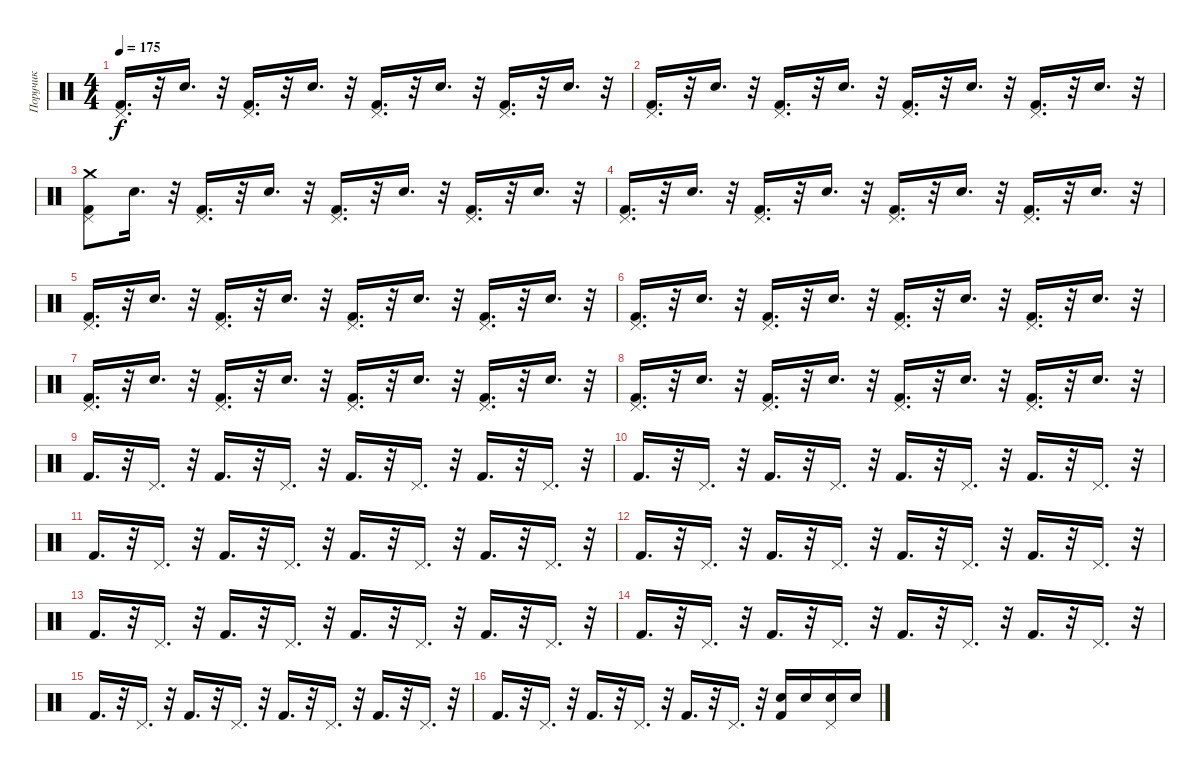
\track ("Поручик" "Поручик") {instrument percussion}
\staff {score}
\articulation defaults
\ts (4 4)
\tempo 175
\clef neutral
\ks c
("Pedal Hi-Hat (hit)" "Kick (hit) 2").16{d dy f} r.32 "Snare (hit) 2".16{d} r.32 ("Pedal Hi-Hat (hit)" "Kick (hit) 2").16{d} r.32 "Snare (hit) 2".16{d} r.32 ("Kick (hit) 2" "Pedal Hi-Hat (hit)").16{d} r.32 "Snare (hit) 2".16{d} r.32 ("Kick (hit) 2" "Pedal Hi-Hat (hit)").16{d} r.32 "Snare (hit) 2".16{d} r.32 |
("Pedal Hi-Hat (hit)" "Kick (hit) 2").16{d} r.32 "Snare (hit) 2".16{d} r.32 ("Pedal Hi-Hat (hit)" "Kick (hit) 2").16{d} r.32 "Snare (hit) 2".16{d} r.32 ("Kick (hit) 2" "Pedal Hi-Hat (hit)").16{d} r.32 "Snare (hit) 2".16{d} r.32 ("Pedal Hi-Hat (hit)" "Kick (hit) 2").16{d} r.32 "Snare (hit) 2".16{d} r.32 |
("Crash medium (hit)" "Kick (hit) 2" "Pedal Hi-Hat (hit)").8 "Snare (hit) 2".16{d} r.32 ("Pedal Hi-Hat (hit)" "Kick (hit) 2").16{d} r.32 "Snare (hit) 2".16{d} r.32 ("Pedal Hi-Hat (hit)" "Kick (hit) 2").16{d} r.32 "Snare (hit) 2".16{d} r.32 ("Kick (hit) 2" "Pedal Hi-Hat (hit)").16{d} r.32 "Snare (hit) 2".16{d} r.32 |
("Kick (hit) 2" "Pedal Hi-Hat (hit)").16{d} r.32 "Snare (hit) 2".16{d} r.32 ("Pedal Hi-Hat (hit)" "Kick (hit) 2").16{d} r.32 "Snare (hit) 2".16{d} r.32 ("Kick (hit) 2" "Pedal Hi-Hat (hit)").16{d} r.32 "Snare (hit) 2".16{d} r.32 ("Kick (hit) 2" "Pedal Hi-Hat (hit)").16{d} r.32 "Snare (hit) 2".16{d} r.32 |
("Kick (hit) 2" "Pedal Hi-Hat (hit)").16{d} r.32 "Snare (hit) 2".16{d} r.32 ("Pedal Hi-Hat (hit)" "Kick (hit) 2").16{d} r.32 "Snare (hit) 2".16{d} r.32 ("Kick (hit) 2" "Pedal Hi-Hat (hit)").16{d} r.32 "Snare (hit) 2".16{d} r.32 ("Kick (hit) 2" "Pedal Hi-Hat (hit)").16{d} r.32 "Snare (hit) 2".16{d} r.32 |
("Pedal Hi-Hat (hit)" "Kick (hit) 2").16{d} r.32 "Snare (hit) 2".16{d} r.32 ("Pedal Hi-Hat (hit)" "Kick (hit) 2").16{d} r.32 "Snare (hit) 2".16{d} r.32 ("Kick (hit) 2" "Pedal Hi-Hat (hit)").16{d} r.32 "Snare (hit) 2".16{d} r.32 ("Pedal Hi-Hat (hit)" "Kick (hit) 2").16{d} r.32 "Snare (hit) 2".16{d} r.32 |
("Pedal Hi-Hat (hit)" "Kick (hit) 2").16{d} r.32 "Snare (hit) 2".16{d} r.32 ("Kick (hit) 2" "Pedal Hi-Hat (hit)").16{d} r.32 "Snare (hit) 2".16{d} r.32 ("Kick (hit) 2" "Pedal Hi-Hat (hit)").16{d} r.32 "Snare (hit) 2".16{d} r.32 ("Pedal Hi-Hat (hit)" "Kick (hit) 2").16{d} r.32 "Snare (hit) 2".16{d} r.32 |
("Kick (hit) 2" "Pedal Hi-Hat (hit)").16{d} r.32 "Snare (hit) 2".16{d} r.32 ("Pedal Hi-Hat (hit)" "Kick (hit) 2").16{d} r.32 "Snare (hit) 2".16{d} r.32 ("Pedal Hi-Hat (hit)" "Kick (hit) 2").16{d} r.32 "Snare (hit) 2".16{d} r.32 ("Kick (hit) 2" "Pedal Hi-Hat (hit)").16{d} r.32 "Snare (hit) 2".16{d} r.32 |
"Kick (hit) 2".16{d} r.32 "Pedal Hi-Hat (hit)".16{d} r.32 "Kick (hit) 2".16{d} r.32 "Pedal Hi-Hat (hit)".16{d} r.32 "Kick (hit) 2".16{d} r.32 "Pedal Hi-Hat (hit)".16{d} r.32 "Kick (hit) 2".16{d} r.32 "Pedal Hi-Hat (hit)".16{d} r.32 |
"Kick (hit) 2".16{d} r.32 "Pedal Hi-Hat (hit)".16{d} r.32 "Kick (hit) 2".16{d} r.32 "Pedal Hi-Hat (hit)".16{d} r.32 "Kick (hit) 2".16{d} r.32 "Pedal Hi-Hat (hit)".16{d} r.32 "Kick (hit) 2".16{d} r.32 "Pedal Hi-Hat (hit)".16{d} r.32 |
"Kick (hit) 2".16{d} r.32 "Pedal Hi-Hat (hit)".16{d} r.32 "Kick (hit) 2".16{d} r.32 "Pedal Hi-Hat (hit)".16{d} r.32 "Kick (hit) 2".16{d} r.32 "Pedal Hi-Hat (hit)".16{d} r.32 "Kick (hit) 2".16{d} r.32 "Pedal Hi-Hat (hit)".16{d} r.32 |
"Kick (hit) 2".16{d} r.32 "Pedal Hi-Hat (hit)".16{d} r.32 "Kick (hit) 2".16{d} r.32 "Pedal Hi-Hat (hit)".16{d} r.32 "Kick (hit) 2".16{d} r.32 "Pedal Hi-Hat (hit)".16{d} r.32 "Kick (hit) 2".16{d} r.32 "Pedal Hi-Hat (hit)".16{d} r.32 |
"Kick (hit) 2".16{d} r.32 "Pedal Hi-Hat (hit)".16{d} r.32 "Kick (hit) 2".16{d} r.32 "Pedal Hi-Hat (hit)".16{d} r.32 "Kick (hit) 2".16{d} r.32 "Pedal Hi-Hat (hit)".16{d} r.32 "Kick (hit) 2".16{d} r.32 "Pedal Hi-Hat (hit)".16{d} r.32 |
"Kick (hit) 2".16{d} r.32 "Pedal Hi-Hat (hit)".16{d} r.32 "Kick (hit) 2".16{d} r.32 "Pedal Hi-Hat (hit)".16{d} r.32 "Kick (hit) 2".16{d} r.32 "Pedal Hi-Hat (hit)".16{d} r.32 "Kick (hit) 2".16{d} r.32 "Pedal Hi-Hat (hit)".16{d} r.32 |
"Kick (hit) 2".16{d} r.32 "Pedal Hi-Hat (hit)".16{d} r.32 "Kick (hit) 2".16{d} r.32 "Pedal Hi-Hat (hit)".16{d} r.32 "Kick (hit) 2".16{d} r.32 "Pedal Hi-Hat (hit)".16{d} r.32 "Kick (hit) 2".16{d} r.32 "Pedal Hi-Hat (hit)".16{d} r.32 |
"Kick (hit) 2".16{d} r.32 "Pedal Hi-Hat (hit)".16{d} r.32 "Kick (hit) 2".16{d} r.32 "Pedal Hi-Hat (hit)".16{d} r.32 "Kick (hit) 2".16{d} r.32 "Pedal Hi-Hat (hit)".16{d} r.32 ("Kick (hit) 2" "Snare (hit) 2").16 "Snare (hit) 2".16 ("Pedal Hi-Hat (hit)" "Snare (hit) 2").16 "Snare (hit) 2".16
